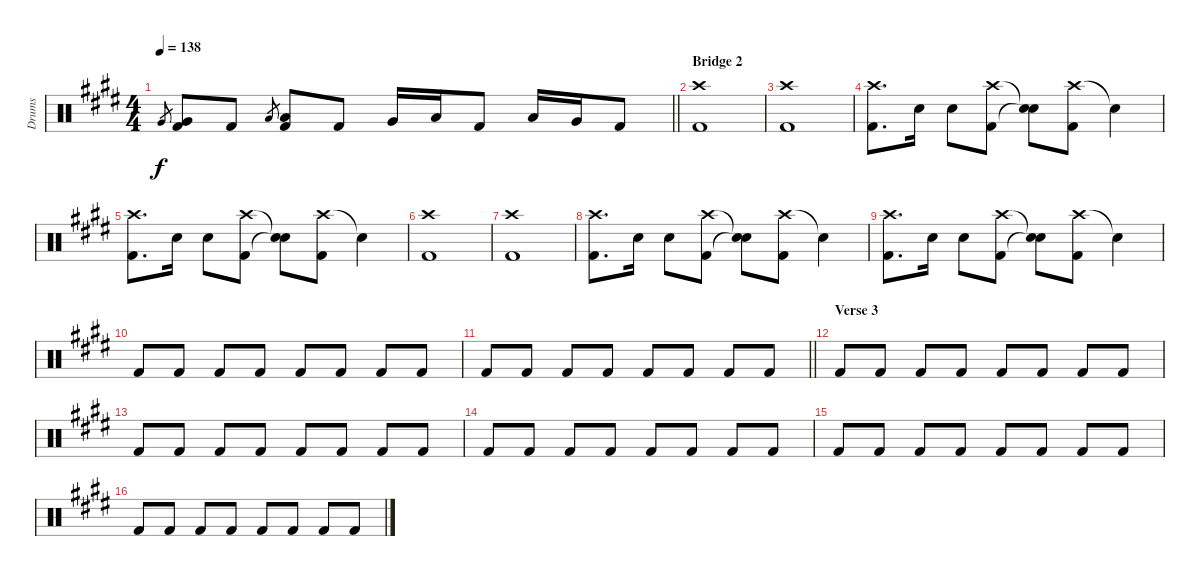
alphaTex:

\track ("Drums" "Drums") {instrument percussion}
\staff {score}
\articulation defaults
\ts (4 4)
\tempo 138
\clef neutral
\barLineRight lightlight
\ks c#minor "Very Low Tom (hit)".8{gr dy f}
("Very Low Tom (hit)" "Kick (hit) 2").8 "Kick (hit) 2".8 "Low Tom (hit)".8{gr} ("Low Tom (hit)" "Kick (hit) 2").8 "Kick (hit) 2".8 "Very Low Tom (hit)".16 "Low Tom (hit)".16 "Kick (hit) 2".8 "Low Tom (hit)".16 "Very Low Tom (hit)".16 "Kick (hit) 2".8 |
\section ("" "Bridge 2")
\ks e
("Crash high (hit)" "Kick (hit) 2").1 |
\ks c#minor
("Crash high (hit)" "Kick (hit) 2").1 |
("Crash high (hit)" "Kick (hit) 2").8{d} "Snare (hit) 2".16 "Snare (hit) 2".8 ("Crash high (hit)" "Kick (hit) 2").8 ("Snare (hit)"{t} "Snare (hit)"{t}).8 ("Crash high (hit)" "Kick (hit) 2").8 "Snare (hit)"{t}.4 |
("Crash high (hit)" "Kick (hit) 2").8{d} "Snare (hit) 2".16 "Snare (hit) 2".8 ("Crash high (hit)" "Kick (hit) 2").8 ("Snare (hit)"{t} "Snare (hit)"{t}).8 ("Crash high (hit)" "Kick (hit) 2").8 "Snare (hit)"{t}.4 |
\ks e
("Crash high (hit)" "Kick (hit) 2").1 |
\ks c#minor
("Crash high (hit)" "Kick (hit) 2").1 |
("Crash high (hit)" "Kick (hit) 2").8{d} "Snare (hit) 2".16 "Snare (hit) 2".8 ("Crash high (hit)" "Kick (hit) 2").8 ("Snare (hit)"{t} "Snare (hit)"{t}).8 ("Crash high (hit)" "Kick (hit) 2").8 "Snare (hit)"{t}.4 |
("Crash high (hit)" "Kick (hit) 2").8{d} "Snare (hit) 2".16 "Snare (hit) 2".8 ("Crash high (hit)" "Kick (hit) 2").8 ("Snare (hit)"{t} "Snare (hit)"{t}).8 ("Crash high (hit)" "Kick (hit) 2").8 "Snare (hit)"{t}.4 |
"Kick (hit) 2".8 "Kick (hit) 2".8 "Kick (hit) 2".8 "Kick (hit) 2".8 "Kick (hit) 2".8 "Kick (hit) 2".8 "Kick (hit) 2".8 "Kick (hit) 2".8 |
\barLineRight lightlight "Kick (hit) 2".8 "Kick (hit) 2".8 "Kick (hit) 2".8 "Kick (hit) 2".8 "Kick (hit) 2".8 "Kick (hit) 2".8 "Kick (hit) 2".8 "Kick (hit) 2".8
|
\section ("" "Verse 3")
"Kick (hit) 2".8 "Kick (hit) 2".8 "Kick (hit) 2".8 "Kick (hit) 2".8 "Kick (hit) 2".8 "Kick (hit) 2".8 "Kick (hit) 2".8 "Kick (hit) 2".8 |
"Kick (hit) 2".8 "Kick (hit) 2".8 "Kick (hit) 2".8 "Kick (hit) 2".8 "Kick (hit) 2".8 "Kick (hit) 2".8 "Kick (hit) 2".8 "Kick (hit) 2".8 |
"Kick (hit) 2".8 "Kick (hit) 2".8 "Kick (hit) 2".8 "Kick (hit) 2".8 "Kick (hit) 2".8 "Kick (hit) 2".8 "Kick (hit) 2".8 "Kick (hit) 2".8 |
"Kick (hit) 2".8 "Kick (hit) 2".8 "Kick (hit) 2".8 "Kick (hit) 2".8 "Kick (hit) 2".8 "Kick (hit) 2".8 "Kick (hit) 2".8 "Kick (hit) 2".8 |
"Kick (hit) 2".8 "Kick (hit) 2".8 "Kick (hit) 2".8 "Kick (hit) 2".8 "Kick (hit) 2".8 "Kick (hit) 2".8 "Kick (hit) 2".8 "Kick (hit) 2".8
